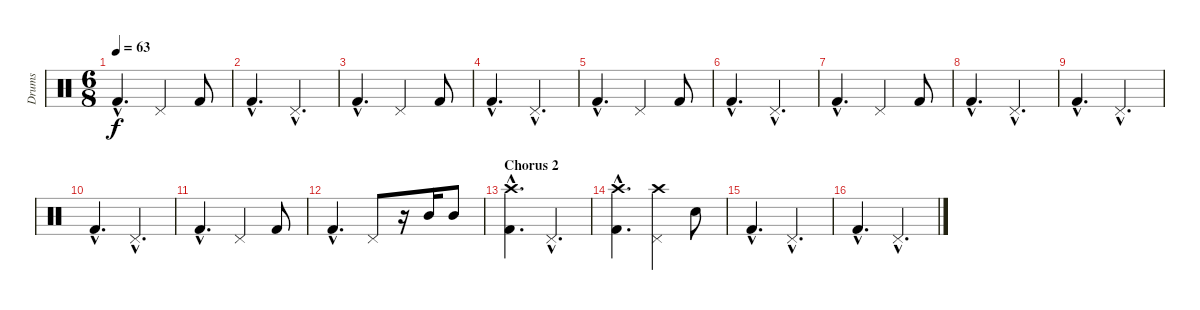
\track ("Drums" "Drums") {instrument percussion}
\staff {score}
\articulation defaults
\ts (6 8)
\tempo 63
\clef neutral
\ks c "Kick (hit) 2"{hac}.4{d dy f} "Pedal Hi-Hat (hit)".4 "Kick (hit) 2".8
|
"Kick (hit) 2"{hac}.4{d} "Pedal Hi-Hat (hit)"{hac}.4{d} |
"Kick (hit) 2"{hac}.4{d} "Pedal Hi-Hat (hit)".4 "Kick (hit) 2".8 |
"Kick (hit) 2"{hac}.4{d} "Pedal Hi-Hat (hit)"{hac}.4{d} |
"Kick (hit) 2"{hac}.4{d} "Pedal Hi-Hat (hit)".4 "Kick (hit) 2".8 |
"Kick (hit) 2"{hac}.4{d} "Pedal Hi-Hat (hit)"{hac}.4{d} |
"Kick (hit) 2"{hac}.4{d} "Pedal Hi-Hat (hit)".4 "Kick (hit) 2".8 |
"Kick (hit) 2"{hac}.4{d} "Pedal Hi-Hat (hit)"{hac}.4{d} |
"Kick (hit) 2"{hac}.4{d} "Pedal Hi-Hat (hit)"{hac}.4{d} |
"Kick (hit) 2"{hac}.4{d} "Pedal Hi-Hat (hit)"{hac}.4{d} |
"Kick (hit) 2"{hac}.4{d} "Pedal Hi-Hat (hit)".4 "Kick (hit) 2".8 |
"Kick (hit) 2"{hac}.4{d} "Pedal Hi-Hat (hit)".8 r.16 "Mid Tom (hit)".16 "Mid Tom (hit)".8 |
\section ("" "Chorus 2")
("Crash high (hit)"{hac} "Kick (hit) 2"{hac}).4{d} "Pedal Hi-Hat (hit)"{hac}.4{d} |
("Crash high (hit)"{hac} "Kick (hit) 2"{hac}).4{d} ("Crash high (hit)" "Pedal Hi-Hat (hit)").4 "Electric Snare (hit)".8 |
"Kick (hit) 2"{hac}.4{d} "Pedal Hi-Hat (hit)"{hac}.4{d} |
"Kick (hit) 2"{hac}.4{d} "Pedal Hi-Hat (hit)"{hac}.4{d}
